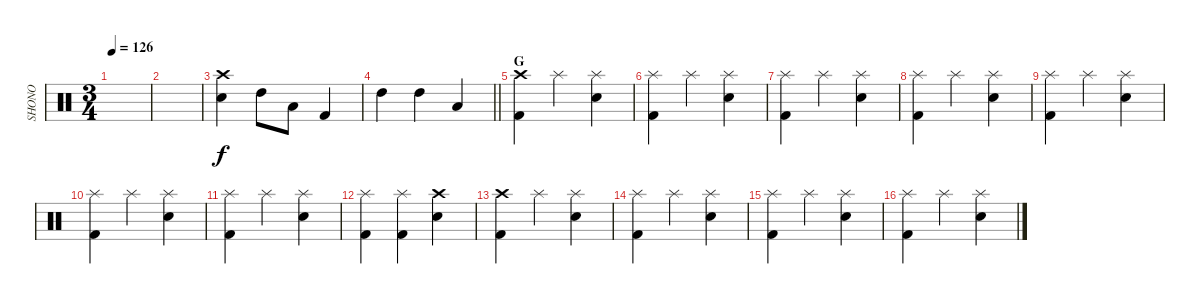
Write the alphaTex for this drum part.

\track ("SHONO" "SHONO") {instrument percussion}
\staff {score}
\articulation defaults
\ts (3 4)
\tempo 126
\clef neutral
\ks c
|
|
("Crash high (hit)" "Snare (hit) 2").4 "High Tom (hit)".8 "Low Tom (hit)".8 "Kick (hit) 2".4 |
\barLineRight lightlight "High Tom (hit)".4 "High Tom (hit)".4 "Low Tom (hit)".4
|
\section ("" "G")
("Crash high (hit)" "Kick (hit) 2").4 "Splash (hit)".4 ("Splash (hit)" "Snare (hit) 2").4 |
("Splash (hit)" "Kick (hit) 2").4 "Splash (hit)".4 ("Splash (hit)" "Snare (hit) 2").4 |
("Splash (hit)" "Kick (hit) 2").4 "Splash (hit)".4 ("Splash (hit)" "Snare (hit) 2").4 |
("Splash (hit)" "Kick (hit) 2").4 "Splash (hit)".4 ("Splash (hit)" "Snare (hit) 2").4 |
("Splash (hit)" "Kick (hit) 2").4 "Splash (hit)".4 ("Splash (hit)" "Snare (hit) 2").4 |
("Splash (hit)" "Kick (hit) 2").4 "Splash (hit)".4 ("Splash (hit)" "Snare (hit) 2").4 |
("Splash (hit)" "Kick (hit) 2").4 "Splash (hit)".4 ("Splash (hit)" "Snare (hit) 2").4 |
("Splash (hit)" "Kick (hit) 2").4 ("Splash (hit)" "Kick (hit) 2").4 ("Crash high (hit)" "Snare (hit) 2").4 |
("Crash high (hit)" "Kick (hit) 2").4 "Splash (hit)".4 ("Splash (hit)" "Snare (hit) 2").4 |
("Splash (hit)" "Kick (hit) 2").4 "Splash (hit)".4 ("Splash (hit)" "Snare (hit) 2").4 |
("Splash (hit)" "Kick (hit) 2").4 "Splash (hit)".4 ("Splash (hit)" "Snare (hit) 2").4 |
("Splash (hit)" "Kick (hit) 2").4 "Splash (hit)".4 ("Splash (hit)" "Snare (hit) 2").4
